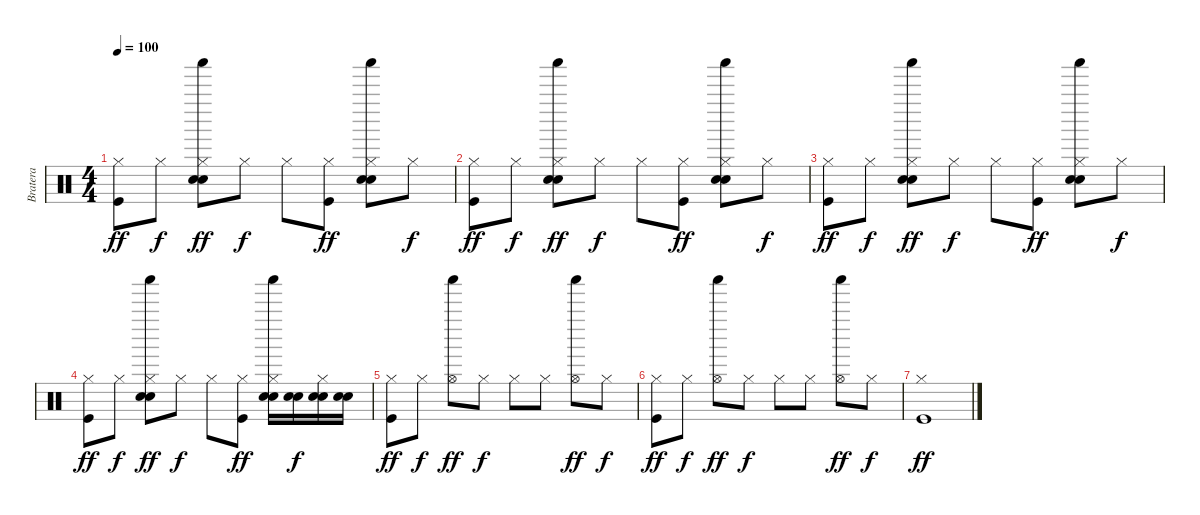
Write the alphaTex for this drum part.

\track ("Bratera" "Bratera") {instrument percussion}
\staff {score}
\articulation defaults
\ts (4 4)
\tempo 100
\clef neutral
\ks c
("Hi-Hat (closed)" "Kick (hit)").8{dy ff} "Hi-Hat (closed)".8{dy f} ("Hi-Hat (closed)" "Shaker (hit)" "Snare (hit) 2" "Electric Snare (hit)").8{dy ff} "Hi-Hat (closed)".8{dy f} "Hi-Hat (closed)".8 ("Hi-Hat (closed)" "Kick (hit)").8{dy ff} ("Hi-Hat (closed)" "Shaker (hit)" "Snare (hit) 2" "Electric Snare (hit)").8 "Hi-Hat (closed)".8{dy f} |
("Hi-Hat (closed)" "Kick (hit)").8{dy ff} "Hi-Hat (closed)".8{dy f} ("Hi-Hat (closed)" "Shaker (hit)" "Snare (hit) 2" "Electric Snare (hit)").8{dy ff} "Hi-Hat (closed)".8{dy f} "Hi-Hat (closed)".8 ("Hi-Hat (closed)" "Kick (hit)").8{dy ff} ("Hi-Hat (closed)" "Shaker (hit)" "Snare (hit) 2" "Electric Snare (hit)").8 "Hi-Hat (closed)".8{dy f} |
("Hi-Hat (closed)" "Kick (hit)").8{dy ff} "Hi-Hat (closed)".8{dy f} ("Hi-Hat (closed)" "Shaker (hit)" "Snare (hit) 2" "Electric Snare (hit)").8{dy ff} "Hi-Hat (closed)".8{dy f} "Hi-Hat (closed)".8 ("Hi-Hat (closed)" "Kick (hit)").8{dy ff} ("Hi-Hat (closed)" "Shaker (hit)" "Snare (hit) 2" "Electric Snare (hit)").8 "Hi-Hat (closed)".8{dy f} |
("Hi-Hat (closed)" "Kick (hit)").8{dy ff} "Hi-Hat (closed)".8{dy f} ("Hi-Hat (closed)" "Shaker (hit)" "Snare (hit) 2" "Electric Snare (hit)").8{dy ff} "Hi-Hat (closed)".8{dy f} "Hi-Hat (closed)".8 ("Hi-Hat (closed)" "Kick (hit)").8{dy ff} ("Hi-Hat (closed)" "Shaker (hit)" "Snare (hit) 2" "Electric Snare (hit)").16 ("Snare (hit) 2" "Electric Snare (hit)").16{dy f} ("Hi-Hat (closed)" "Snare (hit) 2" "Electric Snare (hit)").16 ("Snare (hit) 2" "Electric Snare (hit)").16 |
("Hi-Hat (closed)" "Kick (hit)").8{dy ff} "Hi-Hat (closed)".8{dy f} ("Hi-Hat (open)" "Shaker (hit)").8{dy ff} "Hi-Hat (closed)".8{dy f} "Hi-Hat (closed)".8 "Hi-Hat (closed)".8 ("Hi-Hat (open)" "Shaker (hit)").8{dy ff} "Hi-Hat (closed)".8{dy f} |
("Hi-Hat (closed)" "Kick (hit)").8{dy ff} "Hi-Hat (closed)".8{dy f} ("Hi-Hat (open)" "Shaker (hit)").8{dy ff} "Hi-Hat (closed)".8{dy f} "Hi-Hat (closed)".8 "Hi-Hat (closed)".8 ("Hi-Hat (open)" "Shaker (hit)").8{dy ff} "Hi-Hat (closed)".8{dy f} |
("Hi-Hat (closed)" "Kick (hit)").1{dy ff}
